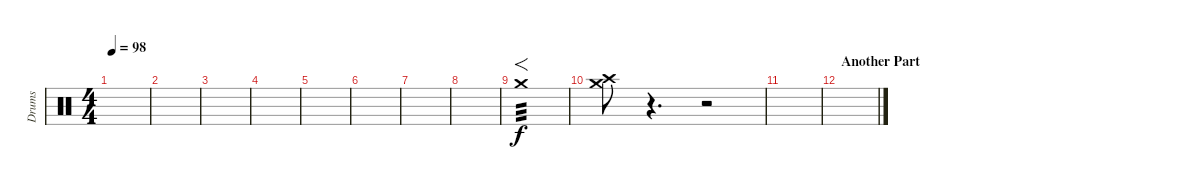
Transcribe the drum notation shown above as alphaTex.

\track ("Drums" "Drums") {instrument percussion}
\staff {score}
\articulation defaults
\ts (4 4)
\tempo 98
\clef neutral
\ks c
|
|
|
|
|
\section ("" "")
|
|
|
"Crash medium (hit)".1{f tp 3} |
("Crash medium (hit)" "Crash high (hit)").8 r.4{d} r.2 |
|
\section ("" "Another Part")
